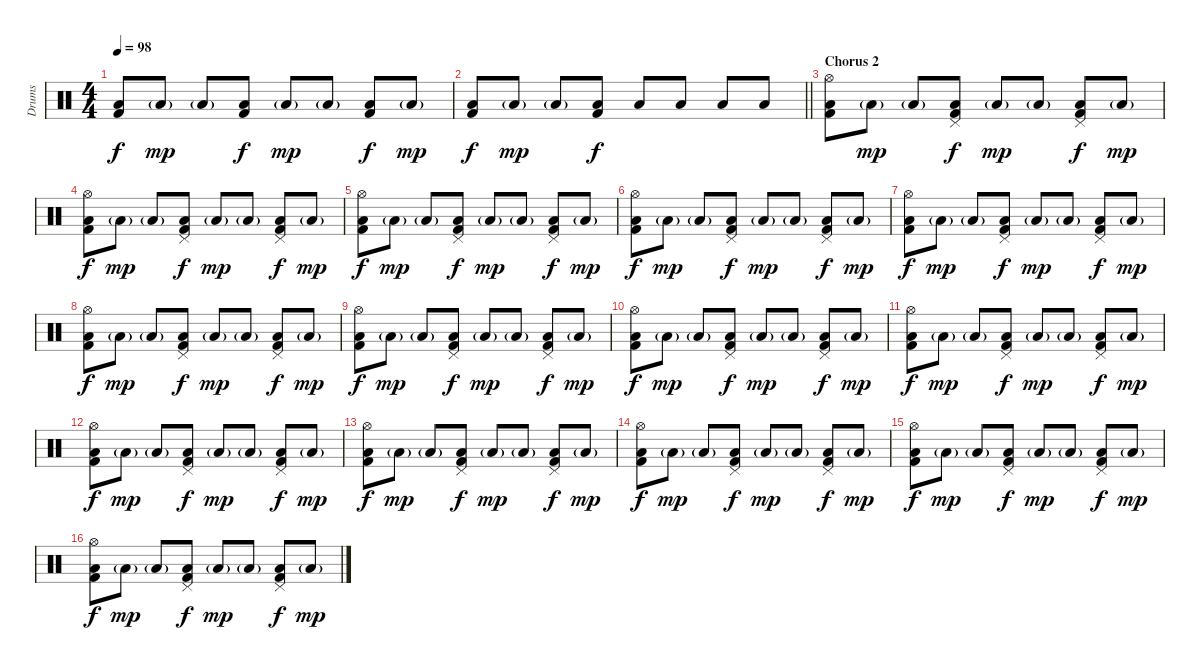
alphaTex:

\track ("Drums" "Drums") {instrument percussion}
\staff {score}
\articulation defaults
\ts (4 4)
\tempo 98
\clef neutral
\ks c
("Kick (hit) 2" "Low Tom (hit)").8{dy f} "Low Tom (hit)"{g}.8{dy mp} "Low Tom (hit)"{g}.8 ("Kick (hit) 2" "Low Tom (hit)").8{dy f} "Low Tom (hit)"{g}.8{dy mp} "Low Tom (hit)"{g}.8 ("Kick (hit) 2" "Low Tom (hit)").8{dy f} "Low Tom (hit)"{g}.8{dy mp} |
\barLineRight lightlight
("Kick (hit) 2" "Low Tom (hit)").8{dy f} "Low Tom (hit)"{g}.8{dy mp} "Low Tom (hit)"{g}.8 ("Kick (hit) 2" "Low Tom (hit)").8{dy f} "Low Tom (hit)".8 "Low Tom (hit)".8 "Low Tom (hit)".8 "Low Tom (hit)".8 |
\section ("" "Chorus 2")
("Hi-Hat (open)" "Kick (hit) 2" "Low Tom (hit)").8 "Low Tom (hit)"{g}.8{dy mp} "Low Tom (hit)"{g}.8 ("Pedal Hi-Hat (hit)" "Kick (hit) 2" "Low Tom (hit)").8{dy f} "Low Tom (hit)"{g}.8{dy mp} "Low Tom (hit)"{g}.8 ("Pedal Hi-Hat (hit)" "Kick (hit) 2" "Low Tom (hit)").8{dy f} "Low Tom (hit)"{g}.8{dy mp} |
("Hi-Hat (open)" "Kick (hit) 2" "Low Tom (hit)").8{dy f} "Low Tom (hit)"{g}.8{dy mp} "Low Tom (hit)"{g}.8 ("Pedal Hi-Hat (hit)" "Kick (hit) 2" "Low Tom (hit)").8{dy f} "Low Tom (hit)"{g}.8{dy mp} "Low Tom (hit)"{g}.8 ("Pedal Hi-Hat (hit)" "Kick (hit) 2" "Low Tom (hit)").8{dy f} "Low Tom (hit)"{g}.8{dy mp} |
("Hi-Hat (open)" "Kick (hit) 2" "Low Tom (hit)").8{dy f} "Low Tom (hit)"{g}.8{dy mp} "Low Tom (hit)"{g}.8 ("Pedal Hi-Hat (hit)" "Kick (hit) 2" "Low Tom (hit)").8{dy f} "Low Tom (hit)"{g}.8{dy mp} "Low Tom (hit)"{g}.8 ("Pedal Hi-Hat (hit)" "Kick (hit) 2" "Low Tom (hit)").8{dy f} "Low Tom (hit)"{g}.8{dy mp} |
("Hi-Hat (open)" "Kick (hit) 2" "Low Tom (hit)").8{dy f} "Low Tom (hit)"{g}.8{dy mp} "Low Tom (hit)"{g}.8 ("Pedal Hi-Hat (hit)" "Kick (hit) 2" "Low Tom (hit)").8{dy f} "Low Tom (hit)"{g}.8{dy mp} "Low Tom (hit)"{g}.8 ("Pedal Hi-Hat (hit)" "Kick (hit) 2" "Low Tom (hit)").8{dy f} "Low Tom (hit)"{g}.8{dy mp} |
("Hi-Hat (open)" "Kick (hit) 2" "Low Tom (hit)").8{dy f} "Low Tom (hit)"{g}.8{dy mp} "Low Tom (hit)"{g}.8 ("Pedal Hi-Hat (hit)" "Kick (hit) 2" "Low Tom (hit)").8{dy f} "Low Tom (hit)"{g}.8{dy mp} "Low Tom (hit)"{g}.8 ("Pedal Hi-Hat (hit)" "Kick (hit) 2" "Low Tom (hit)").8{dy f} "Low Tom (hit)"{g}.8{dy mp} |
("Hi-Hat (open)" "Kick (hit) 2" "Low Tom (hit)").8{dy f} "Low Tom (hit)"{g}.8{dy mp} "Low Tom (hit)"{g}.8 ("Pedal Hi-Hat (hit)" "Kick (hit) 2" "Low Tom (hit)").8{dy f} "Low Tom (hit)"{g}.8{dy mp} "Low Tom (hit)"{g}.8 ("Pedal Hi-Hat (hit)" "Kick (hit) 2" "Low Tom (hit)").8{dy f} "Low Tom (hit)"{g}.8{dy mp} |
("Hi-Hat (open)" "Kick (hit) 2" "Low Tom (hit)").8{dy f} "Low Tom (hit)"{g}.8{dy mp} "Low Tom (hit)"{g}.8 ("Pedal Hi-Hat (hit)" "Kick (hit) 2" "Low Tom (hit)").8{dy f} "Low Tom (hit)"{g}.8{dy mp} "Low Tom (hit)"{g}.8 ("Pedal Hi-Hat (hit)" "Kick (hit) 2" "Low Tom (hit)").8{dy f} "Low Tom (hit)"{g}.8{dy mp} |
("Hi-Hat (open)" "Kick (hit) 2" "Low Tom (hit)").8{dy f} "Low Tom (hit)"{g}.8{dy mp} "Low Tom (hit)"{g}.8 ("Pedal Hi-Hat (hit)" "Kick (hit) 2" "Low Tom (hit)").8{dy f} "Low Tom (hit)"{g}.8{dy mp} "Low Tom (hit)"{g}.8 ("Pedal Hi-Hat (hit)" "Kick (hit) 2" "Low Tom (hit)").8{dy f} "Low Tom (hit)"{g}.8{dy mp} |
("Hi-Hat (open)" "Kick (hit) 2" "Low Tom (hit)").8{dy f} "Low Tom (hit)"{g}.8{dy mp} "Low Tom (hit)"{g}.8 ("Pedal Hi-Hat (hit)" "Kick (hit) 2" "Low Tom (hit)").8{dy f} "Low Tom (hit)"{g}.8{dy mp} "Low Tom (hit)"{g}.8 ("Pedal Hi-Hat (hit)" "Kick (hit) 2" "Low Tom (hit)").8{dy f} "Low Tom (hit)"{g}.8{dy mp} |
("Hi-Hat (open)" "Kick (hit) 2" "Low Tom (hit)").8{dy f} "Low Tom (hit)"{g}.8{dy mp} "Low Tom (hit)"{g}.8 ("Pedal Hi-Hat (hit)" "Kick (hit) 2" "Low Tom (hit)").8{dy f} "Low Tom (hit)"{g}.8{dy mp} "Low Tom (hit)"{g}.8 ("Pedal Hi-Hat (hit)" "Kick (hit) 2" "Low Tom (hit)").8{dy f} "Low Tom (hit)"{g}.8{dy mp} |
("Hi-Hat (open)" "Kick (hit) 2" "Low Tom (hit)").8{dy f} "Low Tom (hit)"{g}.8{dy mp} "Low Tom (hit)"{g}.8 ("Pedal Hi-Hat (hit)" "Kick (hit) 2" "Low Tom (hit)").8{dy f} "Low Tom (hit)"{g}.8{dy mp} "Low Tom (hit)"{g}.8 ("Pedal Hi-Hat (hit)" "Kick (hit) 2" "Low Tom (hit)").8{dy f} "Low Tom (hit)"{g}.8{dy mp} |
("Hi-Hat (open)" "Kick (hit) 2" "Low Tom (hit)").8{dy f} "Low Tom (hit)"{g}.8{dy mp} "Low Tom (hit)"{g}.8 ("Pedal Hi-Hat (hit)" "Kick (hit) 2" "Low Tom (hit)").8{dy f} "Low Tom (hit)"{g}.8{dy mp} "Low Tom (hit)"{g}.8 ("Pedal Hi-Hat (hit)" "Kick (hit) 2" "Low Tom (hit)").8{dy f} "Low Tom (hit)"{g}.8{dy mp} |
("Hi-Hat (open)" "Kick (hit) 2" "Low Tom (hit)").8{dy f} "Low Tom (hit)"{g}.8{dy mp} "Low Tom (hit)"{g}.8 ("Pedal Hi-Hat (hit)" "Kick (hit) 2" "Low Tom (hit)").8{dy f} "Low Tom (hit)"{g}.8{dy mp} "Low Tom (hit)"{g}.8 ("Pedal Hi-Hat (hit)" "Kick (hit) 2" "Low Tom (hit)").8{dy f} "Low Tom (hit)"{g}.8{dy mp} |
("Hi-Hat (open)" "Kick (hit) 2" "Low Tom (hit)").8{dy f} "Low Tom (hit)"{g}.8{dy mp} "Low Tom (hit)"{g}.8 ("Pedal Hi-Hat (hit)" "Kick (hit) 2" "Low Tom (hit)").8{dy f} "Low Tom (hit)"{g}.8{dy mp} "Low Tom (hit)"{g}.8 ("Pedal Hi-Hat (hit)" "Kick (hit) 2" "Low Tom (hit)").8{dy f} "Low Tom (hit)"{g}.8{dy mp}
